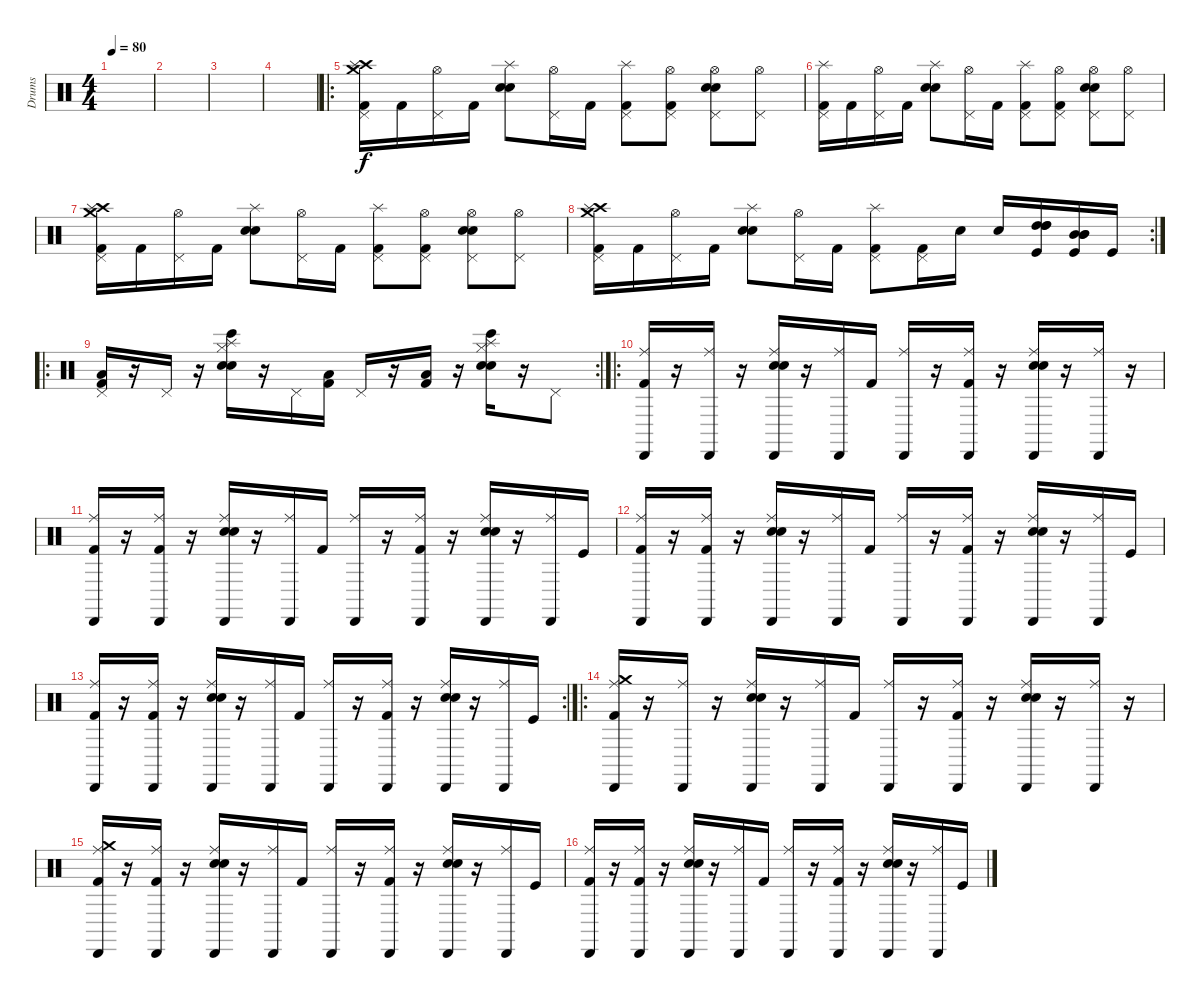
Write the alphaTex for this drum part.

\track ("Drums" "Drums") {instrument percussion}
\staff {score}
\articulation defaults
\ts (4 4)
\section ("" "")
\tempo 80
\clef neutral
\ks c
|
|
|
|
\ro
("Kick (hit) 2" "Crash high (hit)" "Pedal Hi-Hat (hit)" "Splash (hit)" "Crash medium (hit)").16 "Kick (hit) 2".16 ("Pedal Hi-Hat (hit)" "Hi-Hat (open)").16 "Kick (hit) 2".16 ("Snare (hit) 2" "Electric Snare (hit)" "Splash (hit)").8 ("Pedal Hi-Hat (hit)" "Hi-Hat (open)").16 "Kick (hit) 2".16 ("Kick (hit) 2" "Pedal Hi-Hat (hit)" "Splash (hit)").8 ("Kick (hit) 2" "Pedal Hi-Hat (hit)" "Hi-Hat (open)").8 ("Snare (hit) 2" "Electric Snare (hit)" "Pedal Hi-Hat (hit)" "Hi-Hat (open)").8 ("Pedal Hi-Hat (hit)" "Hi-Hat (open)").8 |
("Kick (hit) 2" "Pedal Hi-Hat (hit)" "Splash (hit)").16 "Kick (hit) 2".16 ("Pedal Hi-Hat (hit)" "Hi-Hat (open)").16 "Kick (hit) 2".16 ("Snare (hit) 2" "Electric Snare (hit)" "Splash (hit)").8 ("Pedal Hi-Hat (hit)" "Hi-Hat (open)").16 "Kick (hit) 2".16 ("Kick (hit) 2" "Pedal Hi-Hat (hit)" "Splash (hit)").8 ("Kick (hit) 2" "Pedal Hi-Hat (hit)" "Hi-Hat (open)").8 ("Snare (hit) 2" "Electric Snare (hit)" "Pedal Hi-Hat (hit)" "Hi-Hat (open)").8 ("Pedal Hi-Hat (hit)" "Hi-Hat (open)").8 |
("Kick (hit) 2" "Crash high (hit)" "Pedal Hi-Hat (hit)" "Splash (hit)" "Crash medium (hit)").16 "Kick (hit) 2".16 ("Pedal Hi-Hat (hit)" "Hi-Hat (open)").16 "Kick (hit) 2".16 ("Snare (hit) 2" "Electric Snare (hit)" "Splash (hit)").8 ("Pedal Hi-Hat (hit)" "Hi-Hat (open)").16 "Kick (hit) 2".16 ("Kick (hit) 2" "Pedal Hi-Hat (hit)" "Splash (hit)").8 ("Kick (hit) 2" "Pedal Hi-Hat (hit)" "Hi-Hat (open)").8 ("Snare (hit) 2" "Electric Snare (hit)" "Pedal Hi-Hat (hit)" "Hi-Hat (open)").8 ("Pedal Hi-Hat (hit)" "Hi-Hat (open)").8 |
\rc 2
("Kick (hit) 2" "Crash high (hit)" "Pedal Hi-Hat (hit)" "Splash (hit)" "Crash medium (hit)").16 "Kick (hit) 2".16 ("Pedal Hi-Hat (hit)" "Hi-Hat (open)").16 "Kick (hit) 2".16 ("Snare (hit) 2" "Electric Snare (hit)" "Splash (hit)").8 ("Pedal Hi-Hat (hit)" "Hi-Hat (open)").16 "Kick (hit) 2".16 ("Kick (hit) 2" "Pedal Hi-Hat (hit)" "Splash (hit)").8 ("Kick (hit) 2" "Pedal Hi-Hat (hit)").16 "Electric Snare (hit)".16 "Electric Snare (hit)".16 ("Kick (hit)" "High Tom (hit)" "High Tom (hit)" "High Tom (hit)").16 ("Kick (hit)" "Mid Tom (hit)" "Mid Tom (hit)" "Mid Tom (hit)").16 "Kick (hit)".16 |
\ro
\rc 2
("Kick (hit) 2" "Low Floor Tom (hit)" "Pedal Hi-Hat (hit)").16 r.16 "Pedal Hi-Hat (hit)".16 r.16 ("Electric Snare (hit)" "Bongo High (hit)" "Hand Clap (hit)" "Hi-Hat (closed)" "Splash (hit)").16 r.16 "Pedal Hi-Hat (hit)".16 ("Kick (hit) 2" "Low Floor Tom (hit)").16 "Pedal Hi-Hat (hit)".16 r.16 ("Kick (hit) 2" "Low Floor Tom (hit)").16 r.16 ("Electric Snare (hit)" "Bongo High (hit)" "Hand Clap (hit)" "Hi-Hat (closed)" "Splash (hit)").16 r.16 "Pedal Hi-Hat (hit)".8 |
\ro
("Kick (hit) 2" "Ride (middle)" "Cabasa (hit)").16 r.16 ("Ride (middle)" "Cabasa (hit)").16 r.16 ("Snare (hit) 2" "Electric Snare (hit)" "Ride (middle)" "Cabasa (hit)").16 r.16 ("Ride (middle)" "Cabasa (hit)").16 "Kick (hit) 2".16 ("Ride (middle)" "Cabasa (hit)").16 r.16 ("Kick (hit) 2" "Ride (middle)" "Cabasa (hit)").16 r.16 ("Snare (hit) 2" "Electric Snare (hit)" "Ride (middle)" "Cabasa (hit)").16 r.16 ("Ride (middle)" "Cabasa (hit)").16 r.16 |
("Kick (hit) 2" "Ride (middle)" "Cabasa (hit)").16 r.16 ("Kick (hit) 2" "Ride (middle)" "Cabasa (hit)").16 r.16 ("Snare (hit) 2" "Electric Snare (hit)" "Ride (middle)" "Cabasa (hit)").16 r.16 ("Ride (middle)" "Cabasa (hit)").16 "Kick (hit) 2".16 ("Ride (middle)" "Cabasa (hit)").16 r.16 ("Kick (hit) 2" "Ride (middle)" "Cabasa (hit)").16 r.16 ("Snare (hit) 2" "Electric Snare (hit)" "Ride (middle)" "Cabasa (hit)").16 r.16 ("Ride (middle)" "Cabasa (hit)").16 "Kick (hit)".16 |
("Kick (hit) 2" "Ride (middle)" "Cabasa (hit)").16 r.16 ("Kick (hit) 2" "Ride (middle)" "Cabasa (hit)").16 r.16 ("Snare (hit) 2" "Electric Snare (hit)" "Ride (middle)" "Cabasa (hit)").16 r.16 ("Ride (middle)" "Cabasa (hit)").16 "Kick (hit) 2".16 ("Ride (middle)" "Cabasa (hit)").16 r.16 ("Kick (hit) 2" "Ride (middle)" "Cabasa (hit)").16 r.16 ("Snare (hit) 2" "Electric Snare (hit)" "Ride (middle)" "Cabasa (hit)").16 r.16 ("Ride (middle)" "Cabasa (hit)").16 "Kick (hit)".16 |
\rc 2
("Kick (hit) 2" "Ride (middle)" "Cabasa (hit)").16 r.16 ("Kick (hit) 2" "Ride (middle)" "Cabasa (hit)").16 r.16 ("Snare (hit) 2" "Electric Snare (hit)" "Ride (middle)" "Cabasa (hit)").16 r.16 ("Ride (middle)" "Cabasa (hit)").16 "Kick (hit) 2".16 ("Ride (middle)" "Cabasa (hit)").16 r.16 ("Kick (hit) 2" "Ride (middle)" "Cabasa (hit)").16 r.16 ("Snare (hit) 2" "Electric Snare (hit)" "Ride (middle)" "Cabasa (hit)").16 r.16 ("Ride (middle)" "Cabasa (hit)").16 "Kick (hit)".16 |
\ro
("Kick (hit) 2" "Crash medium (hit)" "Ride (middle)" "Cabasa (hit)").16 r.16 ("Ride (middle)" "Cabasa (hit)").16 r.16 ("Snare (hit) 2" "Electric Snare (hit)" "Ride (middle)" "Cabasa (hit)").16 r.16 ("Ride (middle)" "Cabasa (hit)").16 "Kick (hit) 2".16 ("Ride (middle)" "Cabasa (hit)").16 r.16 ("Kick (hit) 2" "Ride (middle)" "Cabasa (hit)").16 r.16 ("Snare (hit) 2" "Electric Snare (hit)" "Ride (middle)" "Cabasa (hit)").16 r.16 ("Ride (middle)" "Cabasa (hit)").16 r.16 |
("Kick (hit) 2" "Crash medium (hit)" "Ride (middle)" "Cabasa (hit)").16 r.16 ("Kick (hit) 2" "Ride (middle)" "Cabasa (hit)").16 r.16 ("Snare (hit) 2" "Electric Snare (hit)" "Ride (middle)" "Cabasa (hit)").16 r.16 ("Ride (middle)" "Cabasa (hit)").16 "Kick (hit) 2".16 ("Ride (middle)" "Cabasa (hit)").16 r.16 ("Kick (hit) 2" "Ride (middle)" "Cabasa (hit)").16 r.16 ("Snare (hit) 2" "Electric Snare (hit)" "Ride (middle)" "Cabasa (hit)").16 r.16 ("Ride (middle)" "Cabasa (hit)").16 "Kick (hit)".16 |
("Kick (hit) 2" "Ride (middle)" "Cabasa (hit)").16 r.16 ("Kick (hit) 2" "Ride (middle)" "Cabasa (hit)").16 r.16 ("Snare (hit) 2" "Electric Snare (hit)" "Ride (middle)" "Cabasa (hit)").16 r.16 ("Ride (middle)" "Cabasa (hit)").16 "Kick (hit) 2".16 ("Ride (middle)" "Cabasa (hit)").16 r.16 ("Kick (hit) 2" "Ride (middle)" "Cabasa (hit)").16 r.16 ("Snare (hit) 2" "Electric Snare (hit)" "Ride (middle)" "Cabasa (hit)").16 r.16 ("Ride (middle)" "Cabasa (hit)").16 "Kick (hit)".16
